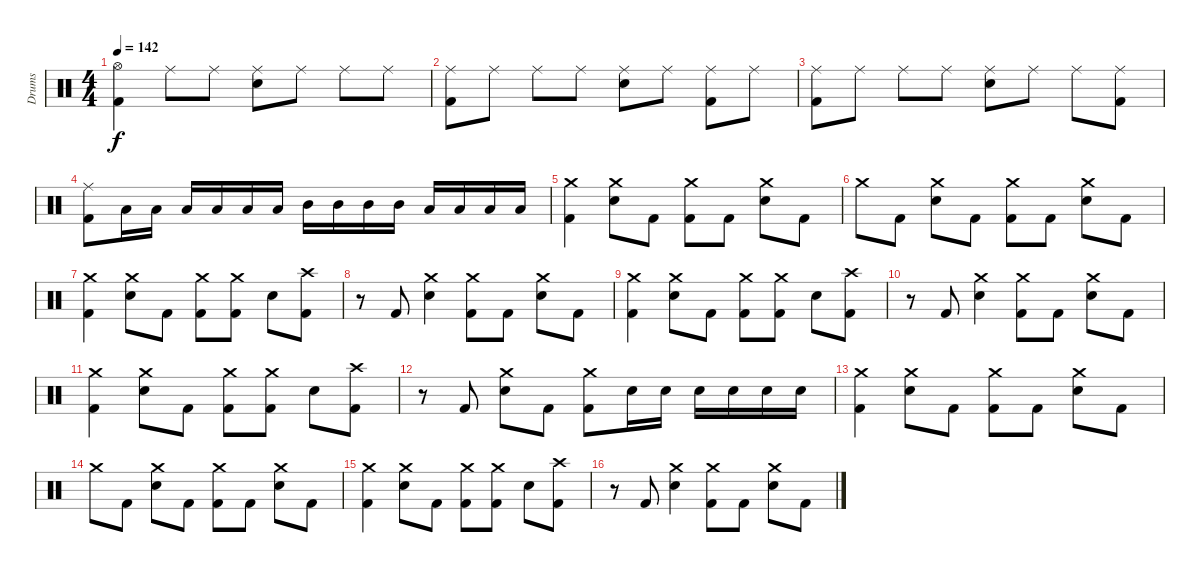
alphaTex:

\track ("Drums" "Drums") {instrument percussion}
\staff {score}
\articulation defaults
\ts (4 4)
\tempo 142
\clef neutral
\ks c
("Hi-Hat (open)" "Kick (hit) 2").4{dy f} "Ride (middle)".8 "Ride (middle)".8 ("Ride (middle)" "Electric Snare (hit)").8 "Ride (middle)".8 "Ride (middle)".8 "Ride (middle)".8 |
("Ride (middle)" "Kick (hit) 2").8 "Ride (middle)".8 "Ride (middle)".8 "Ride (middle)".8 ("Ride (middle)" "Electric Snare (hit)").8 "Ride (middle)".8 ("Ride (middle)" "Kick (hit) 2").8 "Ride (middle)".8 |
("Ride (middle)" "Kick (hit) 2").8 "Ride (middle)".8 "Ride (middle)".8 "Ride (middle)".8 ("Ride (middle)" "Electric Snare (hit)").8 "Ride (middle)".8 "Ride (middle)".8 ("Ride (middle)" "Kick (hit) 2").8 |
("Ride (middle)" "Kick (hit) 2").8 "Low Tom (hit)".16 "Low Tom (hit)".16 "Low Tom (hit)".16 "Low Tom (hit)".16 "Low Tom (hit)".16 "Low Tom (hit)".16 "Mid Tom (hit)".16 "Mid Tom (hit)".16 "Mid Tom (hit)".16 "Mid Tom (hit)".16 "Low Floor Tom (hit)".16 "Low Floor Tom (hit)".16 "Low Floor Tom (hit)".16 "Low Floor Tom (hit)".16 |
("Crash medium (hit)" "Kick (hit) 2").4 ("Crash medium (hit)" "Electric Snare (hit)").8 "Kick (hit) 2".8 ("Crash medium (hit)" "Kick (hit) 2").8 "Kick (hit) 2".8 ("Crash medium (hit)" "Electric Snare (hit)").8 "Kick (hit) 2".8 |
"Crash medium (hit)".8 "Kick (hit) 2".8 ("Crash medium (hit)" "Electric Snare (hit)").8 "Kick (hit) 2".8 ("Crash medium (hit)" "Kick (hit) 2").8 "Kick (hit) 2".8 ("Crash medium (hit)" "Electric Snare (hit)").8 "Kick (hit) 2".8 |
("Crash medium (hit)" "Kick (hit) 2").4 ("Crash medium (hit)" "Electric Snare (hit)").8 "Kick (hit) 2".8 ("Crash medium (hit)" "Kick (hit) 2").8 ("Crash medium (hit)" "Kick (hit) 2").8 "Electric Snare (hit)".8 ("Crash high (hit)" "Kick (hit) 2").8 |
r.8 "Kick (hit) 2".8 ("Crash medium (hit)" "Electric Snare (hit)").4 ("Crash medium (hit)" "Kick (hit) 2").8 "Kick (hit) 2".8 ("Crash medium (hit)" "Electric Snare (hit)").8 "Kick (hit) 2".8 |
("Crash medium (hit)" "Kick (hit) 2").4 ("Crash medium (hit)" "Electric Snare (hit)").8 "Kick (hit) 2".8 ("Crash medium (hit)" "Kick (hit) 2").8 ("Crash medium (hit)" "Kick (hit) 2").8 "Electric Snare (hit)".8 ("Crash high (hit)" "Kick (hit) 2").8 |
r.8 "Kick (hit) 2".8 ("Crash medium (hit)" "Electric Snare (hit)").4 ("Crash medium (hit)" "Kick (hit) 2").8 "Kick (hit) 2".8 ("Crash medium (hit)" "Electric Snare (hit)").8 "Kick (hit) 2".8 |
("Crash medium (hit)" "Kick (hit) 2").4 ("Crash medium (hit)" "Electric Snare (hit)").8 "Kick (hit) 2".8 ("Crash medium (hit)" "Kick (hit) 2").8 ("Crash medium (hit)" "Kick (hit) 2").8 "Electric Snare (hit)".8 ("Crash high (hit)" "Kick (hit) 2").8 |
r.8 "Kick (hit) 2".8 ("Crash medium (hit)" "Electric Snare (hit)").8 "Kick (hit) 2".8 ("Crash medium (hit)" "Kick (hit) 2").8 "Electric Snare (hit)".16 "Electric Snare (hit)".16 "Electric Snare (hit)".16 "Electric Snare (hit)".16 "Electric Snare (hit)".16 "Electric Snare (hit)".16 |
("Crash medium (hit)" "Kick (hit) 2").4 ("Crash medium (hit)" "Electric Snare (hit)").8 "Kick (hit) 2".8 ("Crash medium (hit)" "Kick (hit) 2").8 "Kick (hit) 2".8 ("Crash medium (hit)" "Electric Snare (hit)").8 "Kick (hit) 2".8 |
"Crash medium (hit)".8 "Kick (hit) 2".8 ("Crash medium (hit)" "Electric Snare (hit)").8 "Kick (hit) 2".8 ("Crash medium (hit)" "Kick (hit) 2").8 "Kick (hit) 2".8 ("Crash medium (hit)" "Electric Snare (hit)").8 "Kick (hit) 2".8 |
("Crash medium (hit)" "Kick (hit) 2").4 ("Crash medium (hit)" "Electric Snare (hit)").8 "Kick (hit) 2".8 ("Crash medium (hit)" "Kick (hit) 2").8 ("Crash medium (hit)" "Kick (hit) 2").8 "Electric Snare (hit)".8 ("Crash high (hit)" "Kick (hit) 2").8 |
r.8 "Kick (hit) 2".8 ("Crash medium (hit)" "Electric Snare (hit)").4 ("Crash medium (hit)" "Kick (hit) 2").8 "Kick (hit) 2".8 ("Crash medium (hit)" "Electric Snare (hit)").8 "Kick (hit) 2".8
